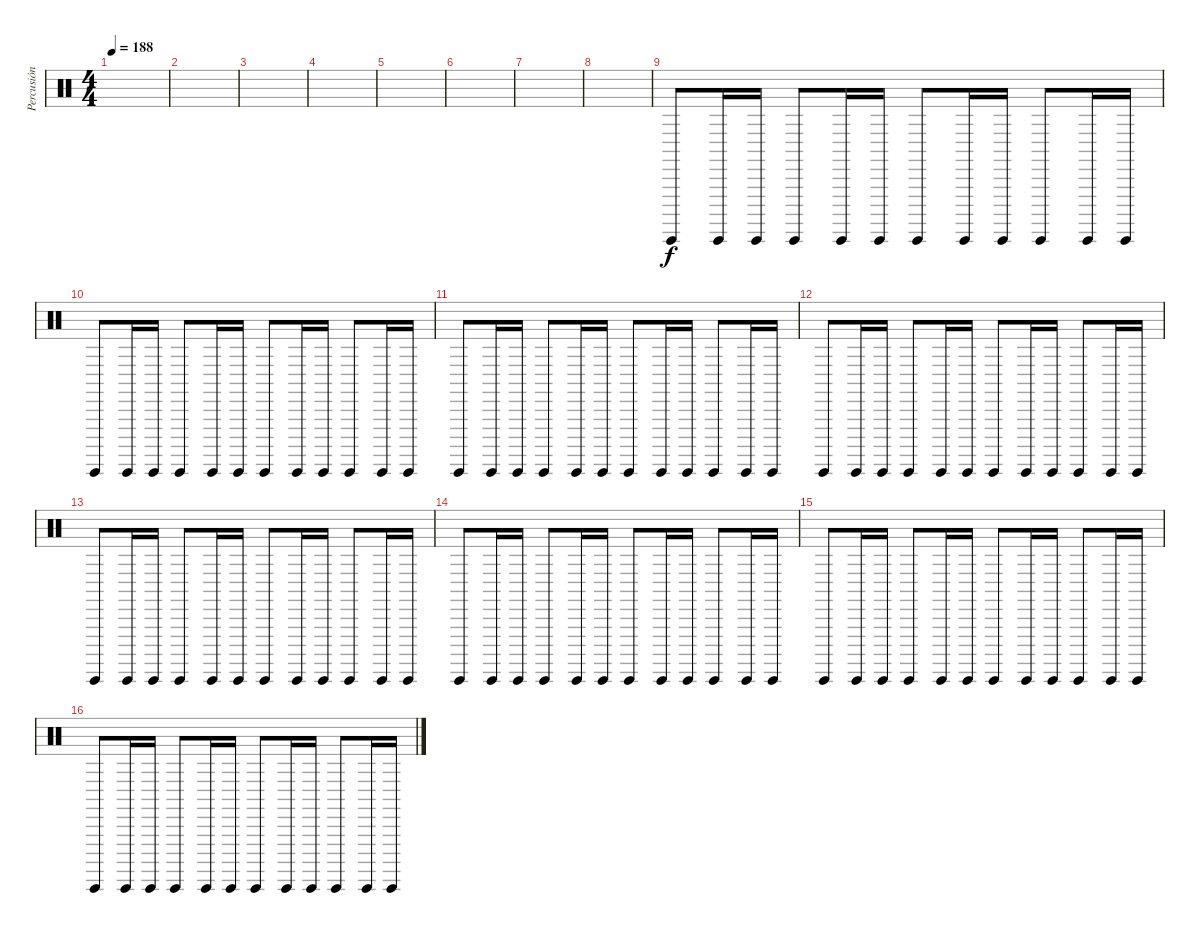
\track ("Percusión" "Percusión") {instrument percussion}
\staff {score}
\articulation defaults
\ts (4 4)
\tempo 188
\clef neutral
\ks c
|
|
|
|
|
|
|
|
"Guiro (hit)".8 "Guiro (hit)".16 "Guiro (hit)".16 "Guiro (hit)".8 "Guiro (hit)".16 "Guiro (hit)".16 "Guiro (hit)".8 "Guiro (hit)".16 "Guiro (hit)".16 "Guiro (hit)".8 "Guiro (hit)".16 "Guiro (hit)".16 |
"Guiro (hit)".8 "Guiro (hit)".16 "Guiro (hit)".16 "Guiro (hit)".8 "Guiro (hit)".16 "Guiro (hit)".16 "Guiro (hit)".8 "Guiro (hit)".16 "Guiro (hit)".16 "Guiro (hit)".8 "Guiro (hit)".16 "Guiro (hit)".16 |
"Guiro (hit)".8 "Guiro (hit)".16 "Guiro (hit)".16 "Guiro (hit)".8 "Guiro (hit)".16 "Guiro (hit)".16 "Guiro (hit)".8 "Guiro (hit)".16 "Guiro (hit)".16 "Guiro (hit)".8 "Guiro (hit)".16 "Guiro (hit)".16 |
"Guiro (hit)".8 "Guiro (hit)".16 "Guiro (hit)".16 "Guiro (hit)".8 "Guiro (hit)".16 "Guiro (hit)".16 "Guiro (hit)".8 "Guiro (hit)".16 "Guiro (hit)".16 "Guiro (hit)".8 "Guiro (hit)".16 "Guiro (hit)".16 |
"Guiro (hit)".8 "Guiro (hit)".16 "Guiro (hit)".16 "Guiro (hit)".8 "Guiro (hit)".16 "Guiro (hit)".16 "Guiro (hit)".8 "Guiro (hit)".16 "Guiro (hit)".16 "Guiro (hit)".8 "Guiro (hit)".16 "Guiro (hit)".16 |
"Guiro (hit)".8 "Guiro (hit)".16 "Guiro (hit)".16 "Guiro (hit)".8 "Guiro (hit)".16 "Guiro (hit)".16 "Guiro (hit)".8 "Guiro (hit)".16 "Guiro (hit)".16 "Guiro (hit)".8 "Guiro (hit)".16 "Guiro (hit)".16 |
"Guiro (hit)".8 "Guiro (hit)".16 "Guiro (hit)".16 "Guiro (hit)".8 "Guiro (hit)".16 "Guiro (hit)".16 "Guiro (hit)".8 "Guiro (hit)".16 "Guiro (hit)".16 "Guiro (hit)".8 "Guiro (hit)".16 "Guiro (hit)".16 |
"Guiro (hit)".8 "Guiro (hit)".16 "Guiro (hit)".16 "Guiro (hit)".8 "Guiro (hit)".16 "Guiro (hit)".16 "Guiro (hit)".8 "Guiro (hit)".16 "Guiro (hit)".16 "Guiro (hit)".8 "Guiro (hit)".16 "Guiro (hit)".16
